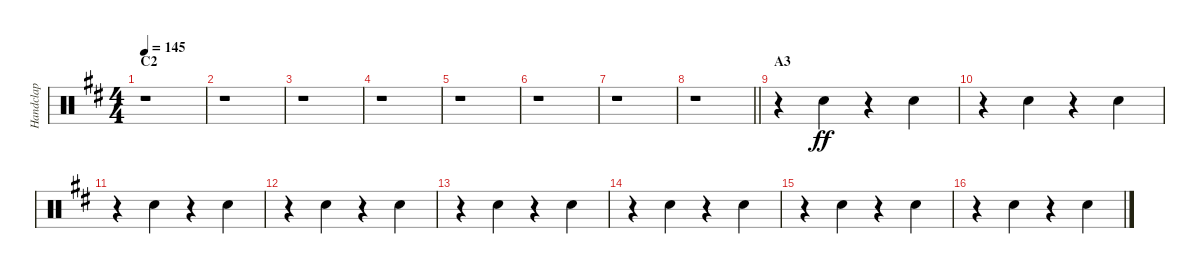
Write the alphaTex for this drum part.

\track ("Handclap" "Handclap") {instrument percussion}
\staff {score}
\articulation defaults
\ts (4 4)
\section ("" "C2")
\tempo 145
\clef neutral
\ks d
r.1{dy ff} |
r.1 |
r.1 |
r.1 |
r.1 |
r.1 |
r.1 |
\barLineRight lightlight
r.1 |
\section ("" "A3")
r.4 "Hand Clap (hit)".4 r.4 "Hand Clap (hit)".4 |
r.4 "Hand Clap (hit)".4 r.4 "Hand Clap (hit)".4 |
r.4 "Hand Clap (hit)".4 r.4 "Hand Clap (hit)".4 |
r.4 "Hand Clap (hit)".4 r.4 "Hand Clap (hit)".4 |
r.4 "Hand Clap (hit)".4 r.4 "Hand Clap (hit)".4 |
r.4 "Hand Clap (hit)".4 r.4 "Hand Clap (hit)".4 |
r.4 "Hand Clap (hit)".4 r.4 "Hand Clap (hit)".4 |
r.4 "Hand Clap (hit)".4 r.4 "Hand Clap (hit)".4
